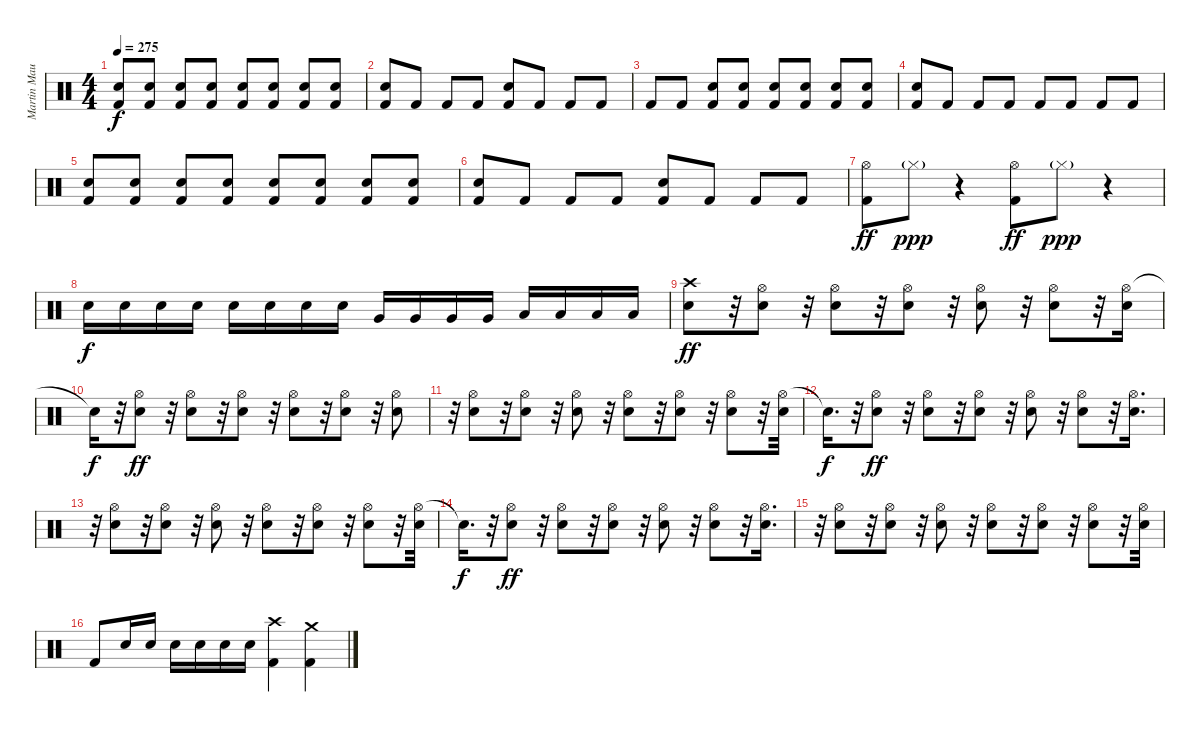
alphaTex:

\track ("Martin Maurais " "Martin Mau") {instrument percussion}
\staff {score}
\articulation defaults
\ts (4 4)
\tempo 275
\clef neutral
\ks c
("Snare (hit) 2" "Kick (hit) 2").8{dy f} ("Snare (hit) 2" "Kick (hit) 2").8 ("Snare (hit) 2" "Kick (hit) 2").8 ("Snare (hit) 2" "Kick (hit) 2").8 ("Snare (hit) 2" "Kick (hit) 2").8 ("Snare (hit) 2" "Kick (hit) 2").8 ("Snare (hit) 2" "Kick (hit) 2").8 ("Snare (hit) 2" "Kick (hit) 2").8 |
("Snare (hit) 2" "Kick (hit) 2").8 "Kick (hit) 2".8 "Kick (hit) 2".8 "Kick (hit) 2".8 ("Snare (hit) 2" "Kick (hit) 2").8 "Kick (hit) 2".8 "Kick (hit) 2".8 "Kick (hit) 2".8 |
"Kick (hit) 2".8 "Kick (hit) 2".8 ("Snare (hit) 2" "Kick (hit) 2").8 ("Snare (hit) 2" "Kick (hit) 2").8 ("Snare (hit) 2" "Kick (hit) 2").8 ("Snare (hit) 2" "Kick (hit) 2").8 ("Snare (hit) 2" "Kick (hit) 2").8 ("Snare (hit) 2" "Kick (hit) 2").8 |
("Snare (hit) 2" "Kick (hit) 2").8 "Kick (hit) 2".8 "Kick (hit) 2".8 "Kick (hit) 2".8 "Kick (hit) 2".8 "Kick (hit) 2".8 "Kick (hit) 2".8 "Kick (hit) 2".8 |
("Snare (hit) 2" "Kick (hit) 2").8 ("Snare (hit) 2" "Kick (hit) 2").8 ("Snare (hit) 2" "Kick (hit) 2").8 ("Snare (hit) 2" "Kick (hit) 2").8 ("Snare (hit) 2" "Kick (hit) 2").8 ("Snare (hit) 2" "Kick (hit) 2").8 ("Snare (hit) 2" "Kick (hit) 2").8 ("Snare (hit) 2" "Kick (hit) 2").8 |
("Snare (hit) 2" "Kick (hit) 2").8 "Kick (hit) 2".8 "Kick (hit) 2".8 "Kick (hit) 2".8 ("Snare (hit) 2" "Kick (hit) 2").8 "Kick (hit) 2".8 "Kick (hit) 2".8 "Kick (hit) 2".8 |
("Hi-Hat (open)" "Kick (hit) 2").8{dy ff} "Hi-Hat (closed)"{g}.8{dy ppp} r.4 ("Hi-Hat (open)" "Kick (hit) 2").8{dy ff} "Hi-Hat (closed)"{g}.8{dy ppp} r.4 |
"Snare (hit) 2".16{dy f} "Snare (hit) 2".16 "Snare (hit) 2".16 "Snare (hit) 2".16 "Snare (hit) 2".16 "Snare (hit) 2".16 "Snare (hit) 2".16 "Snare (hit) 2".16 "Very Low Tom (hit)".16 "Very Low Tom (hit)".16 "Very Low Tom (hit)".16 "Very Low Tom (hit)".16 "Low Floor Tom (hit)".16 "Low Floor Tom (hit)".16 "Low Floor Tom (hit)".16 "Low Floor Tom (hit)".16 |
("Crash high (hit)" "Snare (hit) 2").8{dy ff} r.32 ("Hi-Hat (open)" "Snare (hit) 2").8 r.32 ("Hi-Hat (open)" "Snare (hit) 2").8 r.32 ("Hi-Hat (open)" "Snare (hit) 2").8 r.32 ("Hi-Hat (open)" "Snare (hit) 2").8 r.32 ("Hi-Hat (open)" "Snare (hit) 2").8 r.32 ("Hi-Hat (open)" "Snare (hit) 2").16 |
"Snare (hit)"{t}.16{dy f} r.32 ("Hi-Hat (open)" "Snare (hit) 2").8{dy ff} r.32 ("Hi-Hat (open)" "Snare (hit) 2").8 r.32 ("Hi-Hat (open)" "Snare (hit) 2").8 r.32 ("Hi-Hat (open)" "Snare (hit) 2").8 r.32 ("Hi-Hat (open)" "Snare (hit) 2").8 r.32 ("Hi-Hat (open)" "Snare (hit) 2").8 |
r.32 ("Hi-Hat (open)" "Snare (hit) 2").8 r.32 ("Hi-Hat (open)" "Snare (hit) 2").8 r.32 ("Hi-Hat (open)" "Snare (hit) 2").8 r.32 ("Hi-Hat (open)" "Snare (hit) 2").8 r.32 ("Hi-Hat (open)" "Snare (hit) 2").8 r.32 ("Hi-Hat (open)" "Snare (hit) 2").8 r.32 ("Hi-Hat (open)" "Snare (hit) 2").32 |
"Snare (hit)"{t}.16{d dy f} r.32 ("Hi-Hat (open)" "Snare (hit) 2").8{dy ff} r.32 ("Hi-Hat (open)" "Snare (hit) 2").8 r.32 ("Hi-Hat (open)" "Snare (hit) 2").8 r.32 ("Hi-Hat (open)" "Snare (hit) 2").8 r.32 ("Hi-Hat (open)" "Snare (hit) 2").8 r.32 ("Hi-Hat (open)" "Snare (hit) 2").16{d} |
r.32 ("Hi-Hat (open)" "Snare (hit) 2").8 r.32 ("Hi-Hat (open)" "Snare (hit) 2").8 r.32 ("Hi-Hat (open)" "Snare (hit) 2").8 r.32 ("Hi-Hat (open)" "Snare (hit) 2").8 r.32 ("Hi-Hat (open)" "Snare (hit) 2").8 r.32 ("Hi-Hat (open)" "Snare (hit) 2").8 r.32 ("Hi-Hat (open)" "Snare (hit) 2").32 |
"Snare (hit)"{t}.16{d dy f} r.32 ("Hi-Hat (open)" "Snare (hit) 2").8{dy ff} r.32 ("Hi-Hat (open)" "Snare (hit) 2").8 r.32 ("Hi-Hat (open)" "Snare (hit) 2").8 r.32 ("Hi-Hat (open)" "Snare (hit) 2").8 r.32 ("Hi-Hat (open)" "Snare (hit) 2").8 r.32 ("Hi-Hat (open)" "Snare (hit) 2").16{d} |
r.32 ("Hi-Hat (open)" "Snare (hit) 2").8 r.32 ("Hi-Hat (open)" "Snare (hit) 2").8 r.32 ("Hi-Hat (open)" "Snare (hit) 2").8 r.32 ("Hi-Hat (open)" "Snare (hit) 2").8 r.32 ("Hi-Hat (open)" "Snare (hit) 2").8 r.32 ("Hi-Hat (open)" "Snare (hit) 2").8 r.32 ("Hi-Hat (open)" "Snare (hit) 2").32 |
"Kick (hit) 2".8 "Snare (hit) 2".16 "Snare (hit) 2".16 "Snare (hit) 2".16 "Snare (hit) 2".16 "Snare (hit) 2".16 "Snare (hit) 2".16 ("Crash high (hit)" "Kick (hit) 2").4 ("Crash medium (hit)" "Kick (hit) 2").4
